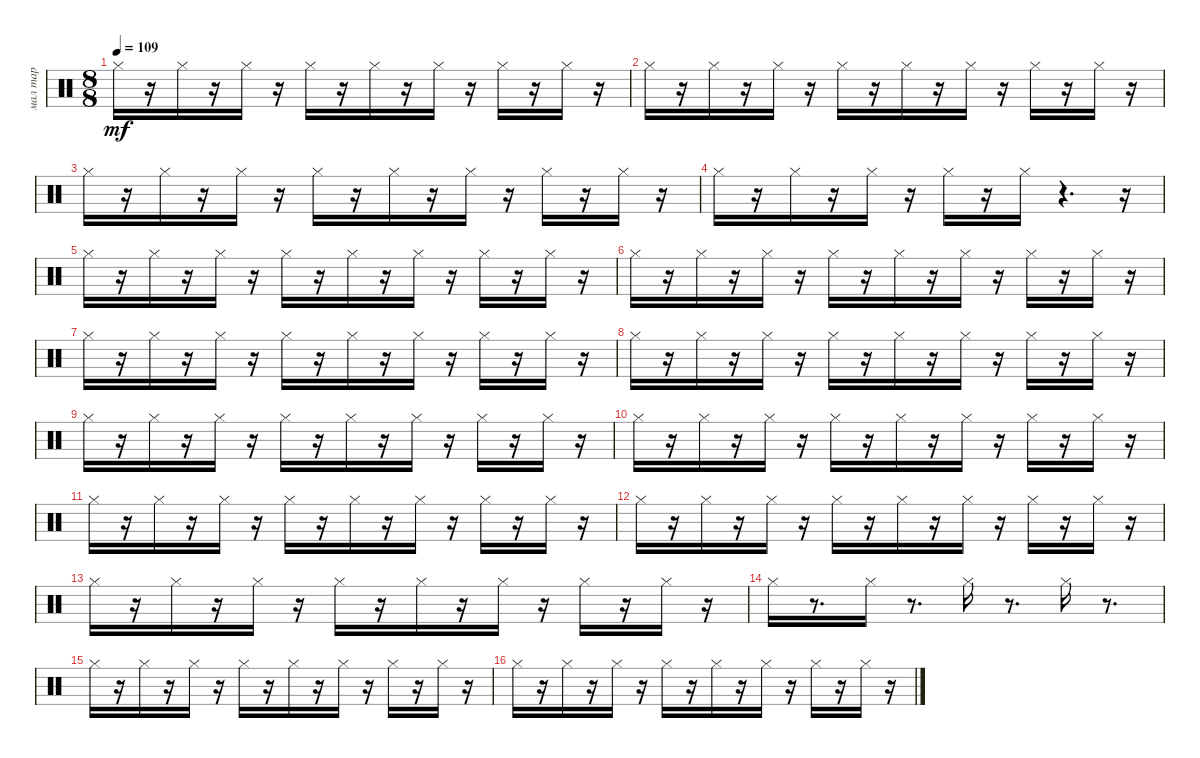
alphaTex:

\track ("мал тар" "мал тар") {instrument percussion}
\staff {score}
\articulation defaults
\ts (8 8)
\tempo 109
\clef neutral
\ks c "Hi-Hat (closed)".16{dy mf}
r.16 "Hi-Hat (closed)".16 r.16 "Hi-Hat (closed)".16 r.16 "Hi-Hat (closed)".16 r.16 "Hi-Hat (closed)".16 r.16 "Hi-Hat (closed)".16 r.16 "Hi-Hat (closed)".16 r.16 "Hi-Hat (closed)".16 r.16 |
"Hi-Hat (closed)".16 r.16 "Hi-Hat (closed)".16 r.16 "Hi-Hat (closed)".16 r.16 "Hi-Hat (closed)".16 r.16 "Hi-Hat (closed)".16 r.16 "Hi-Hat (closed)".16 r.16 "Hi-Hat (closed)".16 r.16 "Hi-Hat (closed)".16 r.16 |
"Hi-Hat (closed)".16 r.16 "Hi-Hat (closed)".16 r.16 "Hi-Hat (closed)".16 r.16 "Hi-Hat (closed)".16 r.16 "Hi-Hat (closed)".16 r.16 "Hi-Hat (closed)".16 r.16 "Hi-Hat (closed)".16 r.16 "Hi-Hat (closed)".16 r.16 |
"Hi-Hat (closed)".16 r.16 "Hi-Hat (closed)".16 r.16 "Hi-Hat (closed)".16 r.16 "Hi-Hat (closed)".16 r.16 "Hi-Hat (closed)".16 r.4{d} r.16 |
"Hi-Hat (closed)".16 r.16 "Hi-Hat (closed)".16 r.16 "Hi-Hat (closed)".16 r.16 "Hi-Hat (closed)".16 r.16 "Hi-Hat (closed)".16 r.16 "Hi-Hat (closed)".16 r.16 "Hi-Hat (closed)".16 r.16 "Hi-Hat (closed)".16 r.16 |
"Hi-Hat (closed)".16 r.16 "Hi-Hat (closed)".16 r.16 "Hi-Hat (closed)".16 r.16 "Hi-Hat (closed)".16 r.16 "Hi-Hat (closed)".16 r.16 "Hi-Hat (closed)".16 r.16 "Hi-Hat (closed)".16 r.16 "Hi-Hat (closed)".16 r.16 |
"Hi-Hat (closed)".16 r.16 "Hi-Hat (closed)".16 r.16 "Hi-Hat (closed)".16 r.16 "Hi-Hat (closed)".16 r.16 "Hi-Hat (closed)".16 r.16 "Hi-Hat (closed)".16 r.16 "Hi-Hat (closed)".16 r.16 "Hi-Hat (closed)".16 r.16 |
"Hi-Hat (closed)".16 r.16 "Hi-Hat (closed)".16 r.16 "Hi-Hat (closed)".16 r.16 "Hi-Hat (closed)".16 r.16 "Hi-Hat (closed)".16 r.16 "Hi-Hat (closed)".16 r.16 "Hi-Hat (closed)".16 r.16 "Hi-Hat (closed)".16 r.16 |
"Hi-Hat (closed)".16 r.16 "Hi-Hat (closed)".16 r.16 "Hi-Hat (closed)".16 r.16 "Hi-Hat (closed)".16 r.16 "Hi-Hat (closed)".16 r.16 "Hi-Hat (closed)".16 r.16 "Hi-Hat (closed)".16 r.16 "Hi-Hat (closed)".16 r.16 |
"Hi-Hat (closed)".16 r.16 "Hi-Hat (closed)".16 r.16 "Hi-Hat (closed)".16 r.16 "Hi-Hat (closed)".16 r.16 "Hi-Hat (closed)".16 r.16 "Hi-Hat (closed)".16 r.16 "Hi-Hat (closed)".16 r.16 "Hi-Hat (closed)".16 r.16 |
"Hi-Hat (closed)".16 r.16 "Hi-Hat (closed)".16 r.16 "Hi-Hat (closed)".16 r.16 "Hi-Hat (closed)".16 r.16 "Hi-Hat (closed)".16 r.16 "Hi-Hat (closed)".16 r.16 "Hi-Hat (closed)".16 r.16 "Hi-Hat (closed)".16 r.16 |
"Hi-Hat (closed)".16 r.16 "Hi-Hat (closed)".16 r.16 "Hi-Hat (closed)".16 r.16 "Hi-Hat (closed)".16 r.16 "Hi-Hat (closed)".16 r.16 "Hi-Hat (closed)".16 r.16 "Hi-Hat (closed)".16 r.16 "Hi-Hat (closed)".16 r.16 |
"Hi-Hat (closed)".16 r.16 "Hi-Hat (closed)".16 r.16 "Hi-Hat (closed)".16 r.16 "Hi-Hat (closed)".16 r.16 "Hi-Hat (closed)".16 r.16 "Hi-Hat (closed)".16 r.16 "Hi-Hat (closed)".16 r.16 "Hi-Hat (closed)".16 r.16 |
"Hi-Hat (closed)".16 r.8{d} "Hi-Hat (closed)".16 r.8{d} "Hi-Hat (closed)".16 r.8{d} "Hi-Hat (closed)".16 r.8{d} |
"Hi-Hat (closed)".16 r.16 "Hi-Hat (closed)".16 r.16 "Hi-Hat (closed)".16 r.16 "Hi-Hat (closed)".16 r.16 "Hi-Hat (closed)".16 r.16 "Hi-Hat (closed)".16 r.16 "Hi-Hat (closed)".16 r.16 "Hi-Hat (closed)".16 r.16 |
"Hi-Hat (closed)".16 r.16 "Hi-Hat (closed)".16 r.16 "Hi-Hat (closed)".16 r.16 "Hi-Hat (closed)".16 r.16 "Hi-Hat (closed)".16 r.16 "Hi-Hat (closed)".16 r.16 "Hi-Hat (closed)".16 r.16 "Hi-Hat (closed)".16 r.16
